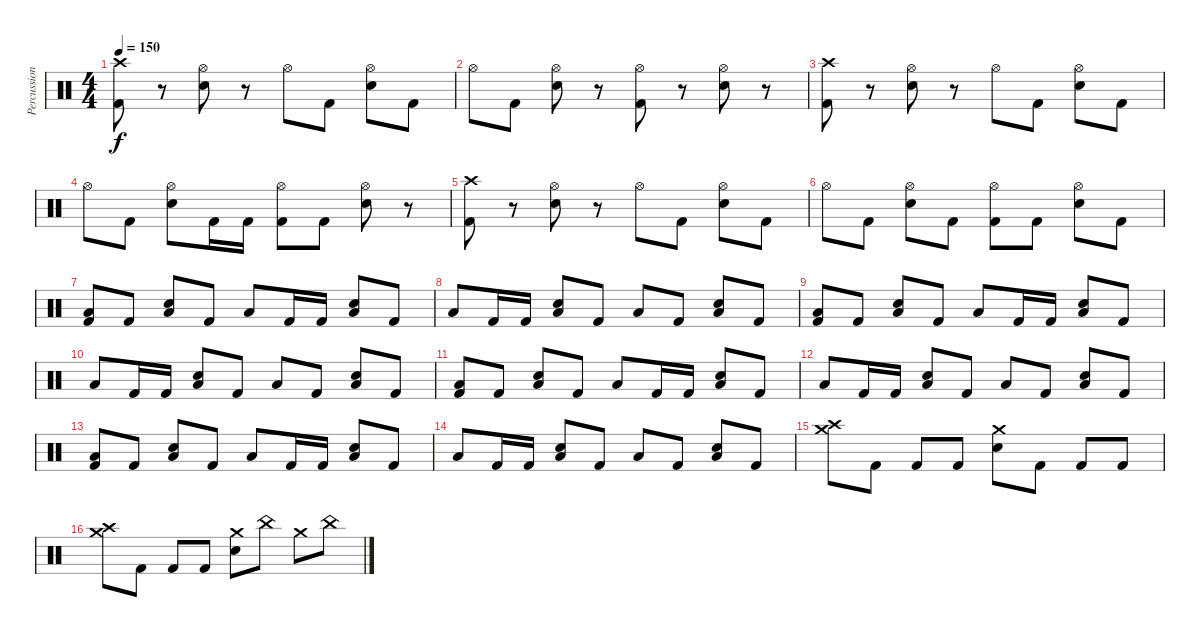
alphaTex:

\track ("Percussion" "Percussion") {instrument percussion}
\staff {score}
\articulation defaults
\ts (4 4)
\tempo 150
\clef neutral
\ks c
("Kick (hit) 2" "Crash high (hit)").8{dy f} r.8 ("Electric Snare (hit)" "Hi-Hat (open)").8 r.8 "Hi-Hat (open)".8 "Kick (hit) 2".8 ("Electric Snare (hit)" "Hi-Hat (open)").8 "Kick (hit) 2".8 |
"Hi-Hat (open)".8 "Kick (hit) 2".8 ("Electric Snare (hit)" "Hi-Hat (open)").8 r.8 ("Kick (hit) 2" "Hi-Hat (open)").8 r.8 ("Electric Snare (hit)" "Hi-Hat (open)").8 r.8 |
("Kick (hit) 2" "Crash high (hit)").8 r.8 ("Electric Snare (hit)" "Hi-Hat (open)").8 r.8 "Hi-Hat (open)".8 "Kick (hit) 2".8 ("Electric Snare (hit)" "Hi-Hat (open)").8 "Kick (hit) 2".8 |
"Hi-Hat (open)".8 "Kick (hit) 2".8 ("Electric Snare (hit)" "Hi-Hat (open)").8 "Kick (hit) 2".16 "Kick (hit) 2".16 ("Kick (hit) 2" "Hi-Hat (open)").8 "Kick (hit) 2".8 ("Electric Snare (hit)" "Hi-Hat (open)").8 r.8 |
("Kick (hit) 2" "Crash high (hit)").8 r.8 ("Electric Snare (hit)" "Hi-Hat (open)").8 r.8 "Hi-Hat (open)".8 "Kick (hit) 2".8 ("Electric Snare (hit)" "Hi-Hat (open)").8 "Kick (hit) 2".8 |
"Hi-Hat (open)".8 "Kick (hit) 2".8 ("Electric Snare (hit)" "Hi-Hat (open)").8 "Kick (hit) 2".8 ("Kick (hit) 2" "Hi-Hat (open)").8 "Kick (hit) 2".8 ("Electric Snare (hit)" "Hi-Hat (open)").8 "Kick (hit) 2".8 |
("Kick (hit) 2" "Low Tom (hit)").8 "Kick (hit) 2".8 ("Electric Snare (hit)" "Low Tom (hit)").8 "Kick (hit) 2".8 "Low Tom (hit)".8 "Kick (hit) 2".16 "Kick (hit) 2".16 ("Electric Snare (hit)" "Low Tom (hit)").8 "Kick (hit) 2".8 |
"Low Tom (hit)".8 "Kick (hit) 2".16 "Kick (hit) 2".16 ("Electric Snare (hit)" "Low Tom (hit)").8 "Kick (hit) 2".8 "Low Tom (hit)".8 "Kick (hit) 2".8 ("Electric Snare (hit)" "Low Tom (hit)").8 "Kick (hit) 2".8 |
("Kick (hit) 2" "Low Tom (hit)").8 "Kick (hit) 2".8 ("Electric Snare (hit)" "Low Tom (hit)").8 "Kick (hit) 2".8 "Low Tom (hit)".8 "Kick (hit) 2".16 "Kick (hit) 2".16 ("Electric Snare (hit)" "Low Tom (hit)").8 "Kick (hit) 2".8 |
"Low Tom (hit)".8 "Kick (hit) 2".16 "Kick (hit) 2".16 ("Electric Snare (hit)" "Low Tom (hit)").8 "Kick (hit) 2".8 "Low Tom (hit)".8 "Kick (hit) 2".8 ("Electric Snare (hit)" "Low Tom (hit)").8 "Kick (hit) 2".8 |
("Kick (hit) 2" "Low Tom (hit)").8 "Kick (hit) 2".8 ("Electric Snare (hit)" "Low Tom (hit)").8 "Kick (hit) 2".8 "Low Tom (hit)".8 "Kick (hit) 2".16 "Kick (hit) 2".16 ("Electric Snare (hit)" "Low Tom (hit)").8 "Kick (hit) 2".8 |
"Low Tom (hit)".8 "Kick (hit) 2".16 "Kick (hit) 2".16 ("Electric Snare (hit)" "Low Tom (hit)").8 "Kick (hit) 2".8 "Low Tom (hit)".8 "Kick (hit) 2".8 ("Electric Snare (hit)" "Low Tom (hit)").8 "Kick (hit) 2".8 |
("Kick (hit) 2" "Low Tom (hit)").8 "Kick (hit) 2".8 ("Electric Snare (hit)" "Low Tom (hit)").8 "Kick (hit) 2".8 "Low Tom (hit)".8 "Kick (hit) 2".16 "Kick (hit) 2".16 ("Electric Snare (hit)" "Low Tom (hit)").8 "Kick (hit) 2".8 |
"Low Tom (hit)".8 "Kick (hit) 2".16 "Kick (hit) 2".16 ("Electric Snare (hit)" "Low Tom (hit)").8 "Kick (hit) 2".8 "Low Tom (hit)".8 "Kick (hit) 2".8 ("Electric Snare (hit)" "Low Tom (hit)").8 "Kick (hit) 2".8 |
("Crash medium (hit)" "Crash high (hit)").8 "Kick (hit) 2".8 "Kick (hit) 2".8 "Kick (hit) 2".8 ("Electric Snare (hit)" "Crash medium (hit)").8 "Kick (hit) 2".8 "Kick (hit) 2".8 "Kick (hit) 2".8 |
("Crash medium (hit)" "Crash high (hit)").8 "Kick (hit) 2".8 "Kick (hit) 2".8 "Kick (hit) 2".8 ("Electric Snare (hit)" "Crash medium (hit)").8 "China (hit)".8 "Crash medium (hit)".8 "China (hit)".8
